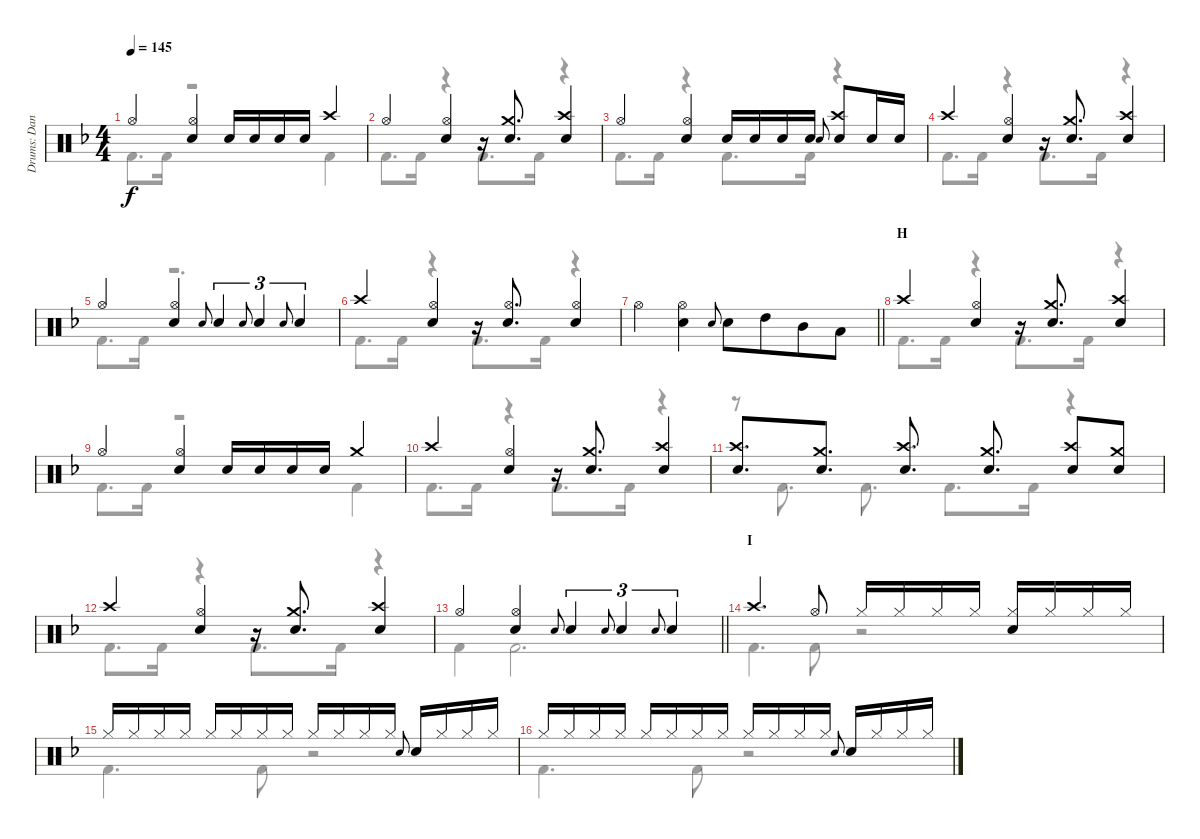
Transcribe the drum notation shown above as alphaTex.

\track ("Drums: Dana" "Drums: Dan") {instrument percussion}
\staff {score}
\articulation defaults
\voice
\ts (4 4)
\tempo 145
\clef neutral
\ks f "Hi-Hat (open)".4{dy f}
("Hi-Hat (open)" "Snare (hit) 2").4 "Snare (hit) 2".16 "Snare (hit) 2".16 "Snare (hit) 2".16 "Snare (hit) 2".16 "Crash high (hit)".4 |
"Hi-Hat (open)".4 ("Hi-Hat (open)" "Snare (hit) 2").4 r.16 ("Crash medium (hit)" "Snare (hit) 2").8{d} ("Crash high (hit)" "Snare (hit) 2").4 |
"Hi-Hat (open)".4 ("Hi-Hat (open)" "Snare (hit) 2").4 "Snare (hit) 2".16 "Snare (hit) 2".16 "Snare (hit) 2".16 "Snare (hit) 2".16 "Electric Snare (hit)".8{gr onbeat} ("Crash high (hit)" "Snare (hit) 2").8 "Snare (hit) 2".16 "Snare (hit) 2".16 |
"Crash high (hit)".4 ("Hi-Hat (open)" "Snare (hit) 2").4 r.16 ("Crash medium (hit)" "Snare (hit) 2").8{d} ("Crash high (hit)" "Snare (hit) 2").4 |
"Hi-Hat (open)".4 ("Hi-Hat (open)" "Snare (hit) 2").4 "Electric Snare (hit)".8{gr onbeat} "Snare (hit) 2".4{tu (3 2)} "Electric Snare (hit)".8{gr onbeat} "Snare (hit) 2".4{tu (3 2)} "Electric Snare (hit)".8{gr onbeat} "Snare (hit) 2".4{tu (3 2)} |
"Crash high (hit)".4 ("Hi-Hat (open)" "Snare (hit) 2").4 r.16 ("Hi-Hat (open)" "Snare (hit) 2").8{d} ("Hi-Hat (open)" "Snare (hit) 2").4 |
\barLineRight lightlight "Hi-Hat (open)".4
("Hi-Hat (open)" "Snare (hit) 2").4 "Electric Snare (hit)".8{gr onbeat} "Snare (hit) 2".8 "High Tom (hit)".8{beam merge} "Mid Tom (hit)".8 "Low Tom (hit)".8 |
\section ("" "H")
"Crash high (hit)".4 ("Hi-Hat (open)" "Snare (hit) 2").4 r.16 ("Crash medium (hit)" "Snare (hit) 2").8{d} ("Crash high (hit)" "Snare (hit) 2").4 |
"Hi-Hat (open)".4 ("Hi-Hat (open)" "Snare (hit) 2").4 "Snare (hit) 2".16 "Snare (hit) 2".16 "Snare (hit) 2".16 "Snare (hit) 2".16 "Crash medium (hit)".4 |
"Crash high (hit)".4 ("Hi-Hat (open)" "Snare (hit) 2").4 r.16 ("Crash medium (hit)" "Snare (hit) 2").8{d} ("Crash high (hit)" "Snare (hit) 2").4 |
("Crash high (hit)" "Snare (hit) 2").8{d} ("Crash medium (hit)" "Snare (hit) 2").8{d} ("Crash high (hit)" "Snare (hit) 2").8{d} ("Crash medium (hit)" "Snare (hit) 2").8{d} ("Crash high (hit)" "Snare (hit) 2").8 ("Crash medium (hit)" "Snare (hit) 2").8 |
"Crash high (hit)".4 ("Hi-Hat (open)" "Snare (hit) 2").4 r.16 ("Crash medium (hit)" "Snare (hit) 2").8{d} ("Crash high (hit)" "Snare (hit) 2").4 |
\barLineRight lightlight "Hi-Hat (open)".4
("Hi-Hat (open)" "Snare (hit) 2").4 "Electric Snare (hit)".8{gr onbeat} "Snare (hit) 2".4{tu (3 2)} "Electric Snare (hit)".8{gr onbeat} "Snare (hit) 2".4{tu (3 2)} "Electric Snare (hit)".8{gr onbeat} "Snare (hit) 2".4{tu (3 2)} |
\section ("" "I")
"Crash high (hit)".4{d} "Hi-Hat (open)".8 "Hi-Hat (closed)".16 "Hi-Hat (closed)".16 "Hi-Hat (closed)".16 "Hi-Hat (closed)".16 ("Hi-Hat (closed)" "Snare (hit) 2").16 "Hi-Hat (closed)".16 "Hi-Hat (closed)".16 "Hi-Hat (closed)".16 |
"Hi-Hat (closed)".16 "Hi-Hat (closed)".16 "Hi-Hat (closed)".16 "Hi-Hat (closed)".16 "Hi-Hat (closed)".16 "Hi-Hat (closed)".16 "Hi-Hat (closed)".16 "Hi-Hat (closed)".16 "Hi-Hat (closed)".16 "Hi-Hat (closed)".16 "Hi-Hat (closed)".16 "Hi-Hat (closed)".16 "Electric Snare (hit)".8{gr onbeat} "Snare (hit) 2".16 "Hi-Hat (closed)".16 "Hi-Hat (closed)".16 "Hi-Hat (closed)".16 |
"Hi-Hat (closed)".16 "Hi-Hat (closed)".16 "Hi-Hat (closed)".16 "Hi-Hat (closed)".16 "Hi-Hat (closed)".16 "Hi-Hat (closed)".16 "Hi-Hat (closed)".16 "Hi-Hat (closed)".16 "Hi-Hat (closed)".16 "Hi-Hat (closed)".16 "Hi-Hat (closed)".16 "Hi-Hat (closed)".16 "Electric Snare (hit)".8{gr onbeat} "Snare (hit) 2".16 "Hi-Hat (closed)".16 "Hi-Hat (closed)".16 "Hi-Hat (closed)".16
\voice
\clef neutral
\ottava regular
\simile none
\ks f "Kick (hit) 2".8{d dy f} "Kick (hit) 2".16
r.2 "Kick (hit) 2".4 |
"Kick (hit) 2".8{d} "Kick (hit) 2".16 r.4 "Kick (hit) 2".8{d} "Kick (hit) 2".16 r.4 |
"Kick (hit) 2".8{d} "Kick (hit) 2".16 r.4 "Kick (hit) 2".8{d} "Kick (hit) 2".16 r.4 |
"Kick (hit) 2".8{d} "Kick (hit) 2".16 r.4 "Kick (hit) 2".8{d} "Kick (hit) 2".16 r.4 |
"Kick (hit) 2".8{d} "Kick (hit) 2".16 r.2{d} |
"Kick (hit) 2".8{d} "Kick (hit) 2".16 r.4 "Kick (hit) 2".8{d} "Kick (hit) 2".16 r.4 |
\barLineRight lightlight
|
"Kick (hit) 2".8{d} "Kick (hit) 2".16 r.4 "Kick (hit) 2".8{d} "Kick (hit) 2".16 r.4 |
"Kick (hit) 2".8{d} "Kick (hit) 2".16 r.2 "Kick (hit) 2".4 |
"Kick (hit) 2".8{d} "Kick (hit) 2".16 r.4 "Kick (hit) 2".8{d} "Kick (hit) 2".16 r.4 |
r.8 "Kick (hit) 2".8{d} "Kick (hit) 2".8{d} "Kick (hit) 2".8{d} "Kick (hit) 2".16 r.4 |
"Kick (hit) 2".8{d} "Kick (hit) 2".16 r.4 "Kick (hit) 2".8{d} "Kick (hit) 2".16 r.4 |
\barLineRight lightlight "Kick (hit) 2".4 "Kick (hit) 2".2{d}
|
"Kick (hit) 2".4{d} "Kick (hit) 2".8 r.2 |
"Kick (hit) 2".4{d} "Kick (hit) 2".8 r.2 |
"Kick (hit) 2".4{d} "Kick (hit) 2".8 r.2
